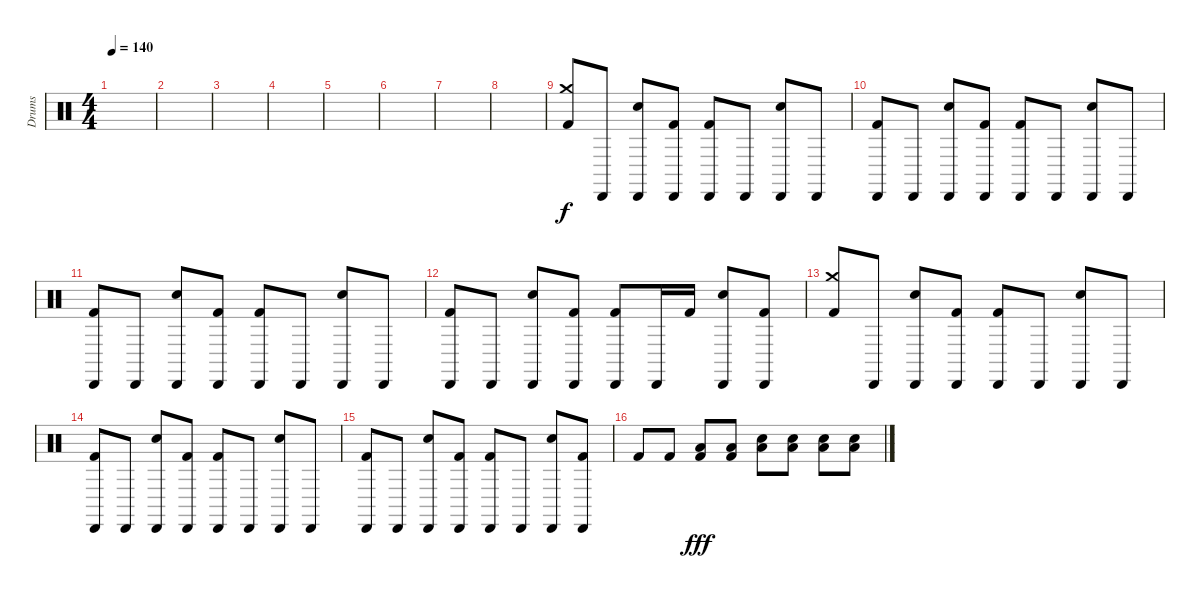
\track ("Drums" "Drums") {instrument percussion}
\staff {score}
\articulation defaults
\ts (4 4)
\tempo 140
\clef neutral
\ks c
|
|
|
|
|
|
|
|
("Crash medium (hit)" "Kick (hit) 2").8 "Cabasa (hit)".8 ("Cabasa (hit)" "Electric Snare (hit)").8 ("Cabasa (hit)" "Kick (hit) 2").8 ("Cabasa (hit)" "Kick (hit) 2").8 "Cabasa (hit)".8 ("Cabasa (hit)" "Electric Snare (hit)").8 "Cabasa (hit)".8 |
("Cabasa (hit)" "Kick (hit) 2").8 "Cabasa (hit)".8 ("Cabasa (hit)" "Electric Snare (hit)").8 ("Cabasa (hit)" "Kick (hit) 2").8 ("Cabasa (hit)" "Kick (hit) 2").8 "Cabasa (hit)".8 ("Cabasa (hit)" "Electric Snare (hit)").8 "Cabasa (hit)".8 |
("Cabasa (hit)" "Kick (hit) 2").8 "Cabasa (hit)".8 ("Cabasa (hit)" "Electric Snare (hit)").8 ("Cabasa (hit)" "Kick (hit) 2").8 ("Cabasa (hit)" "Kick (hit) 2").8 "Cabasa (hit)".8 ("Cabasa (hit)" "Electric Snare (hit)").8 "Cabasa (hit)".8 |
("Cabasa (hit)" "Kick (hit) 2").8 "Cabasa (hit)".8 ("Cabasa (hit)" "Electric Snare (hit)").8 ("Cabasa (hit)" "Kick (hit) 2").8 ("Cabasa (hit)" "Kick (hit) 2").8 "Cabasa (hit)".16 "Kick (hit) 2".16 ("Cabasa (hit)" "Electric Snare (hit)").8 ("Cabasa (hit)" "Kick (hit) 2").8 |
("Crash medium (hit)" "Kick (hit) 2").8 "Cabasa (hit)".8 ("Cabasa (hit)" "Electric Snare (hit)").8 ("Cabasa (hit)" "Kick (hit) 2").8 ("Cabasa (hit)" "Kick (hit) 2").8 "Cabasa (hit)".8 ("Cabasa (hit)" "Electric Snare (hit)").8 "Cabasa (hit)".8 |
("Cabasa (hit)" "Kick (hit) 2").8 "Cabasa (hit)".8 ("Cabasa (hit)" "Electric Snare (hit)").8 ("Cabasa (hit)" "Kick (hit) 2").8 ("Cabasa (hit)" "Kick (hit) 2").8 "Cabasa (hit)".8 ("Cabasa (hit)" "Electric Snare (hit)").8 "Cabasa (hit)".8 |
("Cabasa (hit)" "Kick (hit) 2").8 "Cabasa (hit)".8 ("Cabasa (hit)" "Electric Snare (hit)").8 ("Cabasa (hit)" "Kick (hit) 2").8 ("Cabasa (hit)" "Kick (hit) 2").8 "Cabasa (hit)".8 ("Cabasa (hit)" "Electric Snare (hit)").8 ("Cabasa (hit)" "Kick (hit) 2").8 |
"Kick (hit) 2".8 "Kick (hit) 2".8 ("Low Floor Tom (hit)" "Kick (hit) 2").8{dy fff} ("Low Floor Tom (hit)" "Kick (hit) 2").8 ("Electric Snare (hit)" "Low Floor Tom (hit)").8 ("Electric Snare (hit)" "Low Floor Tom (hit)").8 ("Electric Snare (hit)" "Low Floor Tom (hit)").8 ("Electric Snare (hit)" "Low Floor Tom (hit)").8
